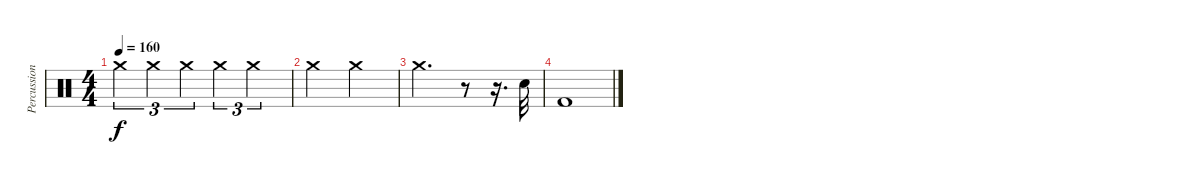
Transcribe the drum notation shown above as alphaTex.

\track ("Percussion" "Percussion") {instrument percussion}
\staff {score}
\articulation defaults
\ts (4 4)
\tempo 160
\clef neutral
\ks c "Crash medium (hit)".4{tu (3 2) dy f} "Crash medium (hit)".4{tu (3 2)} "Crash medium (hit)".4{tu (3 2)} "Crash medium (hit)".4{tu (3 2)} "Crash medium (hit)".2{tu (3 2)}
|
"Crash medium (hit)".2 "Crash medium (hit)".2 |
"Crash medium (hit)".2{d} r.8 r.16{d} "Electric Snare (hit)".32 |
"Kick (hit) 2".1
